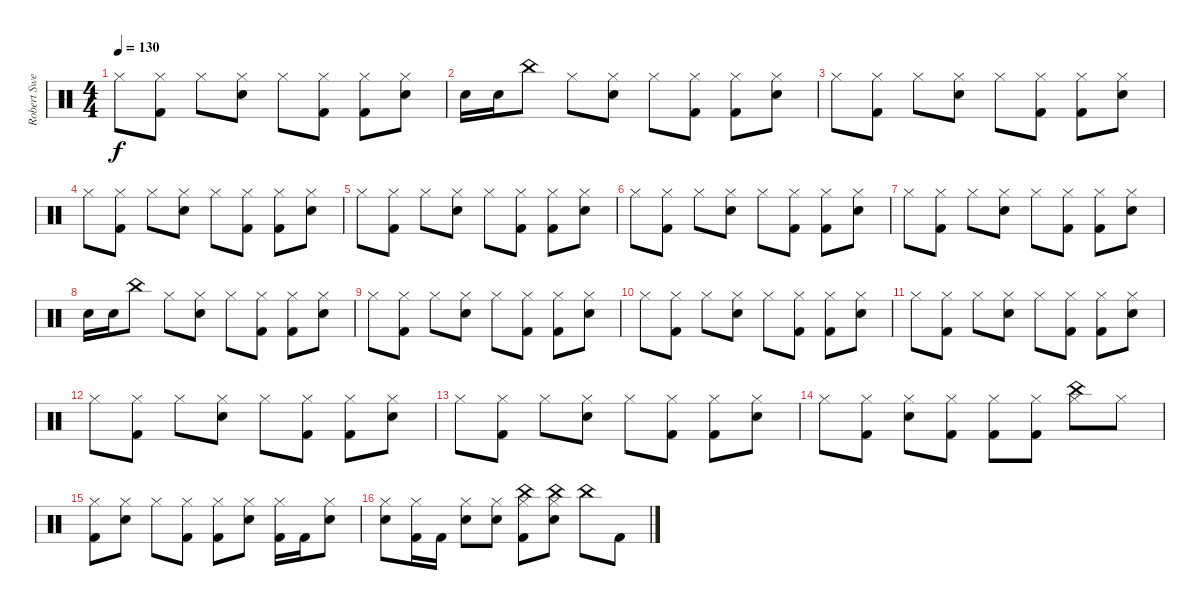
\track ("Robert Sweet" "Robert Swe") {instrument percussion}
\staff {score}
\articulation defaults
\ts (4 4)
\tempo 130
\clef neutral
\ks c "Hi-Hat (closed)".8{dy f}
("Hi-Hat (closed)" "Kick (hit) 2").8 "Hi-Hat (closed)".8 ("Hi-Hat (closed)" "Snare (hit) 2").8 "Hi-Hat (closed)".8 ("Hi-Hat (closed)" "Kick (hit) 2").8 ("Hi-Hat (closed)" "Kick (hit) 2").8 ("Hi-Hat (closed)" "Snare (hit) 2").8 |
"Snare (hit) 2".16 "Snare (hit) 2".16 "China (hit)".8 "Hi-Hat (closed)".8 ("Hi-Hat (closed)" "Snare (hit) 2").8 "Hi-Hat (closed)".8 ("Hi-Hat (closed)" "Kick (hit) 2").8 ("Hi-Hat (closed)" "Kick (hit) 2").8 ("Hi-Hat (closed)" "Snare (hit) 2").8 |
"Hi-Hat (closed)".8 ("Hi-Hat (closed)" "Kick (hit) 2").8 "Hi-Hat (closed)".8 ("Hi-Hat (closed)" "Snare (hit) 2").8 "Hi-Hat (closed)".8 ("Hi-Hat (closed)" "Kick (hit) 2").8 ("Hi-Hat (closed)" "Kick (hit) 2").8 ("Hi-Hat (closed)" "Snare (hit) 2").8 |
"Hi-Hat (closed)".8 ("Hi-Hat (closed)" "Kick (hit) 2").8 "Hi-Hat (closed)".8 ("Hi-Hat (closed)" "Snare (hit) 2").8 "Hi-Hat (closed)".8 ("Hi-Hat (closed)" "Kick (hit) 2").8 ("Hi-Hat (closed)" "Kick (hit) 2").8 ("Hi-Hat (closed)" "Snare (hit) 2").8 |
"Hi-Hat (closed)".8 ("Hi-Hat (closed)" "Kick (hit) 2").8 "Hi-Hat (closed)".8 ("Hi-Hat (closed)" "Snare (hit) 2").8 "Hi-Hat (closed)".8 ("Hi-Hat (closed)" "Kick (hit) 2").8 ("Hi-Hat (closed)" "Kick (hit) 2").8 ("Hi-Hat (closed)" "Snare (hit) 2").8 |
"Hi-Hat (closed)".8 ("Hi-Hat (closed)" "Kick (hit) 2").8 "Hi-Hat (closed)".8 ("Hi-Hat (closed)" "Snare (hit) 2").8 "Hi-Hat (closed)".8 ("Hi-Hat (closed)" "Kick (hit) 2").8 ("Hi-Hat (closed)" "Kick (hit) 2").8 ("Hi-Hat (closed)" "Snare (hit) 2").8 |
"Hi-Hat (closed)".8 ("Hi-Hat (closed)" "Kick (hit) 2").8 "Hi-Hat (closed)".8 ("Hi-Hat (closed)" "Snare (hit) 2").8 "Hi-Hat (closed)".8 ("Hi-Hat (closed)" "Kick (hit) 2").8 ("Hi-Hat (closed)" "Kick (hit) 2").8 ("Hi-Hat (closed)" "Snare (hit) 2").8 |
"Snare (hit) 2".16 "Snare (hit) 2".16 "China (hit)".8 "Hi-Hat (closed)".8 ("Hi-Hat (closed)" "Snare (hit) 2").8 "Hi-Hat (closed)".8 ("Hi-Hat (closed)" "Kick (hit) 2").8 ("Hi-Hat (closed)" "Kick (hit) 2").8 ("Hi-Hat (closed)" "Snare (hit) 2").8 |
"Hi-Hat (closed)".8 ("Hi-Hat (closed)" "Kick (hit) 2").8 "Hi-Hat (closed)".8 ("Hi-Hat (closed)" "Snare (hit) 2").8 "Hi-Hat (closed)".8 ("Hi-Hat (closed)" "Kick (hit) 2").8 ("Hi-Hat (closed)" "Kick (hit) 2").8 ("Hi-Hat (closed)" "Snare (hit) 2").8 |
"Hi-Hat (closed)".8 ("Hi-Hat (closed)" "Kick (hit) 2").8 "Hi-Hat (closed)".8 ("Hi-Hat (closed)" "Snare (hit) 2").8 "Hi-Hat (closed)".8 ("Hi-Hat (closed)" "Kick (hit) 2").8 ("Hi-Hat (closed)" "Kick (hit) 2").8 ("Hi-Hat (closed)" "Snare (hit) 2").8 |
"Hi-Hat (closed)".8 ("Hi-Hat (closed)" "Kick (hit) 2").8 "Hi-Hat (closed)".8 ("Hi-Hat (closed)" "Snare (hit) 2").8 "Hi-Hat (closed)".8 ("Hi-Hat (closed)" "Kick (hit) 2").8 ("Hi-Hat (closed)" "Kick (hit) 2").8 ("Hi-Hat (closed)" "Snare (hit) 2").8 |
"Hi-Hat (closed)".8 ("Hi-Hat (closed)" "Kick (hit) 2").8 "Hi-Hat (closed)".8 ("Hi-Hat (closed)" "Snare (hit) 2").8 "Hi-Hat (closed)".8 ("Hi-Hat (closed)" "Kick (hit) 2").8 ("Hi-Hat (closed)" "Kick (hit) 2").8 ("Hi-Hat (closed)" "Snare (hit) 2").8 |
"Hi-Hat (closed)".8 ("Hi-Hat (closed)" "Kick (hit) 2").8 "Hi-Hat (closed)".8 ("Hi-Hat (closed)" "Snare (hit) 2").8 "Hi-Hat (closed)".8 ("Hi-Hat (closed)" "Kick (hit) 2").8 ("Hi-Hat (closed)" "Kick (hit) 2").8 ("Hi-Hat (closed)" "Snare (hit) 2").8 |
"Hi-Hat (closed)".8 ("Hi-Hat (closed)" "Kick (hit) 2").8 ("Hi-Hat (closed)" "Snare (hit) 2").8 ("Hi-Hat (closed)" "Kick (hit) 2").8 ("Hi-Hat (closed)" "Kick (hit) 2").8 ("Hi-Hat (closed)" "Kick (hit) 2").8 ("Hi-Hat (closed)" "China (hit)").8 "Hi-Hat (closed)".8 |
("Hi-Hat (closed)" "Kick (hit) 2").8 ("Hi-Hat (closed)" "Snare (hit) 2").8 "Hi-Hat (closed)".8 ("Hi-Hat (closed)" "Kick (hit) 2").8 ("Hi-Hat (closed)" "Kick (hit) 2").8 ("Hi-Hat (closed)" "Snare (hit) 2").8 ("Hi-Hat (closed)" "Kick (hit) 2").16 "Kick (hit) 2".16 ("Hi-Hat (closed)" "Snare (hit) 2").8 |
("Hi-Hat (closed)" "Snare (hit) 2").8 ("Hi-Hat (closed)" "Kick (hit) 2").16 "Kick (hit) 2".16 ("Hi-Hat (closed)" "Snare (hit) 2").8 ("Hi-Hat (closed)" "Snare (hit) 2").8 ("Hi-Hat (closed)" "Kick (hit) 2" "China (hit)").8 ("Hi-Hat (closed)" "Snare (hit) 2" "China (hit)").8 "China (hit)".8 "Kick (hit) 2".8
